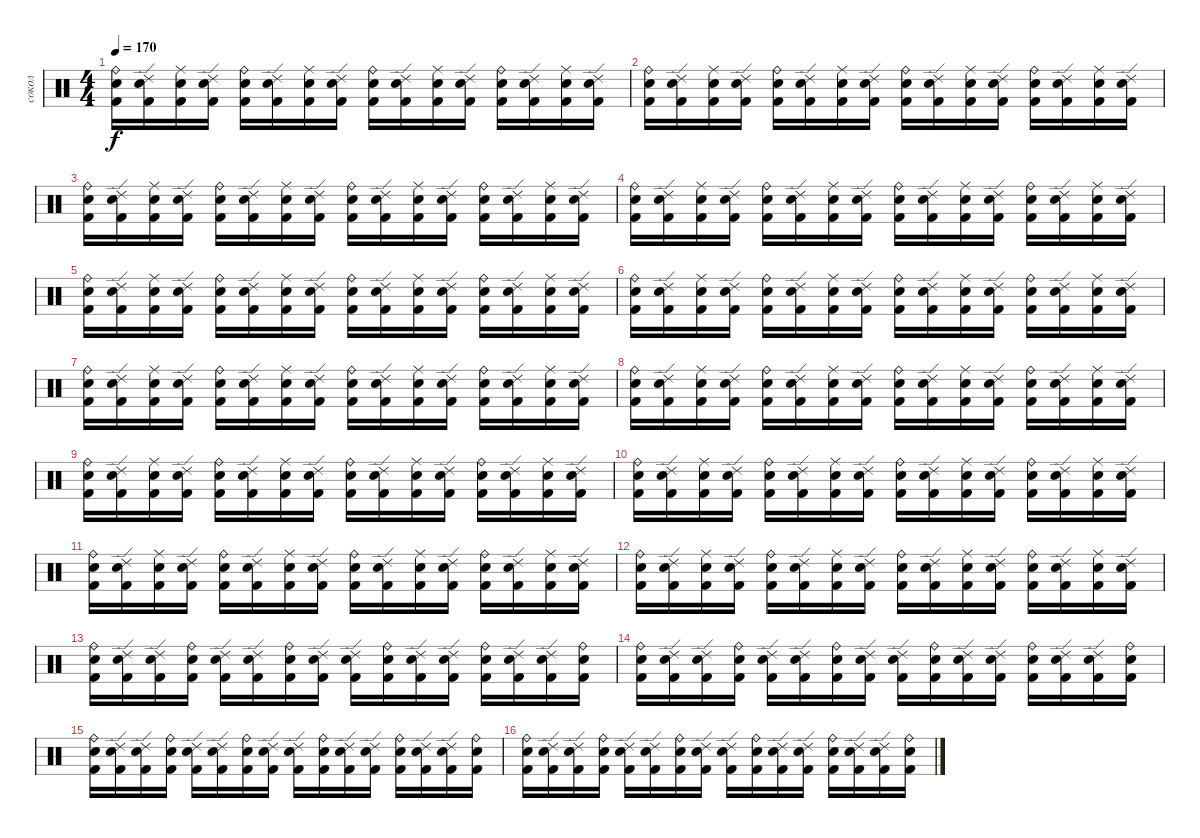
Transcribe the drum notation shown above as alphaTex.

\track ("сокол" "сокол") {instrument percussion}
\staff
\articulation defaults
\ts (4 4)
\tempo 170
\clef neutral
\ks c
("Ride (bell)" "Electric Snare (hit)" "Kick (hit) 2").16{dy f} ("Ride (edge) 2" "Electric Snare (hit)" "Kick (hit) 2").16 ("Ride (middle)" "Electric Snare (hit)" "Kick (hit) 2").16 ("Ride (edge) 2" "Electric Snare (hit)" "Kick (hit) 2").16 ("Ride (bell)" "Electric Snare (hit)" "Kick (hit) 2").16 ("Ride (edge) 2" "Electric Snare (hit)" "Kick (hit) 2").16 ("Ride (middle)" "Electric Snare (hit)" "Kick (hit) 2").16 ("Ride (edge) 2" "Electric Snare (hit)" "Kick (hit) 2").16 ("Ride (bell)" "Electric Snare (hit)" "Kick (hit) 2").16 ("Ride (edge) 2" "Electric Snare (hit)" "Kick (hit) 2").16 ("Ride (middle)" "Electric Snare (hit)" "Kick (hit) 2").16 ("Ride (edge) 2" "Electric Snare (hit)" "Kick (hit) 2").16 ("Ride (bell)" "Electric Snare (hit)" "Kick (hit) 2").16 ("Ride (edge) 2" "Electric Snare (hit)" "Kick (hit) 2").16 ("Ride (middle)" "Electric Snare (hit)" "Kick (hit) 2").16 ("Ride (edge) 2" "Electric Snare (hit)" "Kick (hit) 2").16 |
("Ride (bell)" "Electric Snare (hit)" "Kick (hit) 2").16 ("Ride (edge) 2" "Electric Snare (hit)" "Kick (hit) 2").16 ("Ride (middle)" "Electric Snare (hit)" "Kick (hit) 2").16 ("Ride (edge) 2" "Electric Snare (hit)" "Kick (hit) 2").16 ("Ride (bell)" "Electric Snare (hit)" "Kick (hit) 2").16 ("Ride (edge) 2" "Electric Snare (hit)" "Kick (hit) 2").16 ("Ride (middle)" "Electric Snare (hit)" "Kick (hit) 2").16 ("Ride (edge) 2" "Electric Snare (hit)" "Kick (hit) 2").16 ("Ride (bell)" "Electric Snare (hit)" "Kick (hit) 2").16 ("Ride (edge) 2" "Electric Snare (hit)" "Kick (hit) 2").16 ("Ride (middle)" "Electric Snare (hit)" "Kick (hit) 2").16 ("Ride (edge) 2" "Electric Snare (hit)" "Kick (hit) 2").16 ("Ride (bell)" "Electric Snare (hit)" "Kick (hit) 2").16 ("Ride (edge) 2" "Electric Snare (hit)" "Kick (hit) 2").16 ("Ride (middle)" "Electric Snare (hit)" "Kick (hit) 2").16 ("Ride (edge) 2" "Electric Snare (hit)" "Kick (hit) 2").16 |
("Ride (bell)" "Electric Snare (hit)" "Kick (hit) 2").16 ("Ride (edge) 2" "Electric Snare (hit)" "Kick (hit) 2").16 ("Ride (middle)" "Electric Snare (hit)" "Kick (hit) 2").16 ("Ride (edge) 2" "Electric Snare (hit)" "Kick (hit) 2").16 ("Ride (bell)" "Electric Snare (hit)" "Kick (hit) 2").16 ("Ride (edge) 2" "Electric Snare (hit)" "Kick (hit) 2").16 ("Ride (middle)" "Electric Snare (hit)" "Kick (hit) 2").16 ("Ride (edge) 2" "Electric Snare (hit)" "Kick (hit) 2").16 ("Ride (bell)" "Electric Snare (hit)" "Kick (hit) 2").16 ("Ride (edge) 2" "Electric Snare (hit)" "Kick (hit) 2").16 ("Ride (middle)" "Electric Snare (hit)" "Kick (hit) 2").16 ("Ride (edge) 2" "Electric Snare (hit)" "Kick (hit) 2").16 ("Ride (bell)" "Electric Snare (hit)" "Kick (hit) 2").16 ("Ride (edge) 2" "Electric Snare (hit)" "Kick (hit) 2").16 ("Ride (middle)" "Electric Snare (hit)" "Kick (hit) 2").16 ("Ride (edge) 2" "Electric Snare (hit)" "Kick (hit) 2").16 |
("Ride (bell)" "Electric Snare (hit)" "Kick (hit) 2").16 ("Ride (edge) 2" "Electric Snare (hit)" "Kick (hit) 2").16 ("Ride (middle)" "Electric Snare (hit)" "Kick (hit) 2").16 ("Ride (edge) 2" "Electric Snare (hit)" "Kick (hit) 2").16 ("Ride (bell)" "Electric Snare (hit)" "Kick (hit) 2").16 ("Ride (edge) 2" "Electric Snare (hit)" "Kick (hit) 2").16 ("Ride (middle)" "Electric Snare (hit)" "Kick (hit) 2").16 ("Ride (edge) 2" "Electric Snare (hit)" "Kick (hit) 2").16 ("Ride (bell)" "Electric Snare (hit)" "Kick (hit) 2").16 ("Ride (edge) 2" "Electric Snare (hit)" "Kick (hit) 2").16 ("Ride (middle)" "Electric Snare (hit)" "Kick (hit) 2").16 ("Ride (edge) 2" "Electric Snare (hit)" "Kick (hit) 2").16 ("Ride (bell)" "Electric Snare (hit)" "Kick (hit) 2").16 ("Ride (edge) 2" "Electric Snare (hit)" "Kick (hit) 2").16 ("Ride (middle)" "Electric Snare (hit)" "Kick (hit) 2").16 ("Ride (edge) 2" "Electric Snare (hit)" "Kick (hit) 2").16 |
("Ride (bell)" "Electric Snare (hit)" "Kick (hit) 2").16 ("Ride (edge) 2" "Electric Snare (hit)" "Kick (hit) 2").16 ("Ride (middle)" "Electric Snare (hit)" "Kick (hit) 2").16 ("Ride (edge) 2" "Electric Snare (hit)" "Kick (hit) 2").16 ("Ride (bell)" "Electric Snare (hit)" "Kick (hit) 2").16 ("Ride (edge) 2" "Electric Snare (hit)" "Kick (hit) 2").16 ("Ride (middle)" "Electric Snare (hit)" "Kick (hit) 2").16 ("Ride (edge) 2" "Electric Snare (hit)" "Kick (hit) 2").16 ("Ride (bell)" "Electric Snare (hit)" "Kick (hit) 2").16 ("Ride (edge) 2" "Electric Snare (hit)" "Kick (hit) 2").16 ("Ride (middle)" "Electric Snare (hit)" "Kick (hit) 2").16 ("Ride (edge) 2" "Electric Snare (hit)" "Kick (hit) 2").16 ("Ride (bell)" "Electric Snare (hit)" "Kick (hit) 2").16 ("Ride (edge) 2" "Electric Snare (hit)" "Kick (hit) 2").16 ("Ride (middle)" "Electric Snare (hit)" "Kick (hit) 2").16 ("Ride (edge) 2" "Electric Snare (hit)" "Kick (hit) 2").16 |
("Ride (bell)" "Electric Snare (hit)" "Kick (hit) 2").16 ("Ride (edge) 2" "Electric Snare (hit)" "Kick (hit) 2").16 ("Ride (middle)" "Electric Snare (hit)" "Kick (hit) 2").16 ("Ride (edge) 2" "Electric Snare (hit)" "Kick (hit) 2").16 ("Ride (bell)" "Electric Snare (hit)" "Kick (hit) 2").16 ("Ride (edge) 2" "Electric Snare (hit)" "Kick (hit) 2").16 ("Ride (middle)" "Electric Snare (hit)" "Kick (hit) 2").16 ("Ride (edge) 2" "Electric Snare (hit)" "Kick (hit) 2").16 ("Ride (bell)" "Electric Snare (hit)" "Kick (hit) 2").16 ("Ride (edge) 2" "Electric Snare (hit)" "Kick (hit) 2").16 ("Ride (middle)" "Electric Snare (hit)" "Kick (hit) 2").16 ("Ride (edge) 2" "Electric Snare (hit)" "Kick (hit) 2").16 ("Ride (bell)" "Electric Snare (hit)" "Kick (hit) 2").16 ("Ride (edge) 2" "Electric Snare (hit)" "Kick (hit) 2").16 ("Ride (middle)" "Electric Snare (hit)" "Kick (hit) 2").16 ("Ride (edge) 2" "Electric Snare (hit)" "Kick (hit) 2").16 |
("Ride (bell)" "Electric Snare (hit)" "Kick (hit) 2").16 ("Ride (edge) 2" "Electric Snare (hit)" "Kick (hit) 2").16 ("Ride (middle)" "Electric Snare (hit)" "Kick (hit) 2").16 ("Ride (edge) 2" "Electric Snare (hit)" "Kick (hit) 2").16 ("Ride (bell)" "Electric Snare (hit)" "Kick (hit) 2").16 ("Ride (edge) 2" "Electric Snare (hit)" "Kick (hit) 2").16 ("Ride (middle)" "Electric Snare (hit)" "Kick (hit) 2").16 ("Ride (edge) 2" "Electric Snare (hit)" "Kick (hit) 2").16 ("Ride (bell)" "Electric Snare (hit)" "Kick (hit) 2").16 ("Ride (edge) 2" "Electric Snare (hit)" "Kick (hit) 2").16 ("Ride (middle)" "Electric Snare (hit)" "Kick (hit) 2").16 ("Ride (edge) 2" "Electric Snare (hit)" "Kick (hit) 2").16 ("Ride (bell)" "Electric Snare (hit)" "Kick (hit) 2").16 ("Ride (edge) 2" "Electric Snare (hit)" "Kick (hit) 2").16 ("Ride (middle)" "Electric Snare (hit)" "Kick (hit) 2").16 ("Ride (edge) 2" "Electric Snare (hit)" "Kick (hit) 2").16 |
("Ride (bell)" "Electric Snare (hit)" "Kick (hit) 2").16 ("Ride (edge) 2" "Electric Snare (hit)" "Kick (hit) 2").16 ("Ride (middle)" "Electric Snare (hit)" "Kick (hit) 2").16 ("Ride (edge) 2" "Electric Snare (hit)" "Kick (hit) 2").16 ("Ride (bell)" "Electric Snare (hit)" "Kick (hit) 2").16 ("Ride (edge) 2" "Electric Snare (hit)" "Kick (hit) 2").16 ("Ride (middle)" "Electric Snare (hit)" "Kick (hit) 2").16 ("Ride (edge) 2" "Electric Snare (hit)" "Kick (hit) 2").16 ("Ride (bell)" "Electric Snare (hit)" "Kick (hit) 2").16 ("Ride (edge) 2" "Electric Snare (hit)" "Kick (hit) 2").16 ("Ride (middle)" "Electric Snare (hit)" "Kick (hit) 2").16 ("Ride (edge) 2" "Electric Snare (hit)" "Kick (hit) 2").16 ("Ride (bell)" "Electric Snare (hit)" "Kick (hit) 2").16 ("Ride (edge) 2" "Electric Snare (hit)" "Kick (hit) 2").16 ("Ride (middle)" "Electric Snare (hit)" "Kick (hit) 2").16 ("Ride (edge) 2" "Electric Snare (hit)" "Kick (hit) 2").16 |
("Ride (bell)" "Electric Snare (hit)" "Kick (hit) 2").16 ("Ride (edge) 2" "Electric Snare (hit)" "Kick (hit) 2").16 ("Ride (middle)" "Electric Snare (hit)" "Kick (hit) 2").16 ("Ride (edge) 2" "Electric Snare (hit)" "Kick (hit) 2").16 ("Ride (bell)" "Electric Snare (hit)" "Kick (hit) 2").16 ("Ride (edge) 2" "Electric Snare (hit)" "Kick (hit) 2").16 ("Ride (middle)" "Electric Snare (hit)" "Kick (hit) 2").16 ("Ride (edge) 2" "Electric Snare (hit)" "Kick (hit) 2").16 ("Ride (bell)" "Electric Snare (hit)" "Kick (hit) 2").16 ("Ride (edge) 2" "Electric Snare (hit)" "Kick (hit) 2").16 ("Ride (middle)" "Electric Snare (hit)" "Kick (hit) 2").16 ("Ride (edge) 2" "Electric Snare (hit)" "Kick (hit) 2").16 ("Ride (bell)" "Electric Snare (hit)" "Kick (hit) 2").16 ("Ride (edge) 2" "Electric Snare (hit)" "Kick (hit) 2").16 ("Ride (middle)" "Electric Snare (hit)" "Kick (hit) 2").16 ("Ride (edge) 2" "Electric Snare (hit)" "Kick (hit) 2").16 |
("Ride (bell)" "Electric Snare (hit)" "Kick (hit) 2").16 ("Ride (edge) 2" "Electric Snare (hit)" "Kick (hit) 2").16 ("Ride (middle)" "Electric Snare (hit)" "Kick (hit) 2").16 ("Ride (edge) 2" "Electric Snare (hit)" "Kick (hit) 2").16 ("Ride (bell)" "Electric Snare (hit)" "Kick (hit) 2").16 ("Ride (edge) 2" "Electric Snare (hit)" "Kick (hit) 2").16 ("Ride (middle)" "Electric Snare (hit)" "Kick (hit) 2").16 ("Ride (edge) 2" "Electric Snare (hit)" "Kick (hit) 2").16 ("Ride (bell)" "Electric Snare (hit)" "Kick (hit) 2").16 ("Ride (edge) 2" "Electric Snare (hit)" "Kick (hit) 2").16 ("Ride (middle)" "Electric Snare (hit)" "Kick (hit) 2").16 ("Ride (edge) 2" "Electric Snare (hit)" "Kick (hit) 2").16 ("Ride (bell)" "Electric Snare (hit)" "Kick (hit) 2").16 ("Ride (edge) 2" "Electric Snare (hit)" "Kick (hit) 2").16 ("Ride (middle)" "Electric Snare (hit)" "Kick (hit) 2").16 ("Ride (edge) 2" "Electric Snare (hit)" "Kick (hit) 2").16 |
("Ride (bell)" "Electric Snare (hit)" "Kick (hit) 2").16 ("Ride (edge) 2" "Electric Snare (hit)" "Kick (hit) 2").16 ("Ride (middle)" "Electric Snare (hit)" "Kick (hit) 2").16 ("Ride (edge) 2" "Electric Snare (hit)" "Kick (hit) 2").16 ("Ride (bell)" "Electric Snare (hit)" "Kick (hit) 2").16 ("Ride (edge) 2" "Electric Snare (hit)" "Kick (hit) 2").16 ("Ride (middle)" "Electric Snare (hit)" "Kick (hit) 2").16 ("Ride (edge) 2" "Electric Snare (hit)" "Kick (hit) 2").16 ("Ride (bell)" "Electric Snare (hit)" "Kick (hit) 2").16 ("Ride (edge) 2" "Electric Snare (hit)" "Kick (hit) 2").16 ("Ride (middle)" "Electric Snare (hit)" "Kick (hit) 2").16 ("Ride (edge) 2" "Electric Snare (hit)" "Kick (hit) 2").16 ("Ride (bell)" "Electric Snare (hit)" "Kick (hit) 2").16 ("Ride (edge) 2" "Electric Snare (hit)" "Kick (hit) 2").16 ("Ride (middle)" "Electric Snare (hit)" "Kick (hit) 2").16 ("Ride (edge) 2" "Electric Snare (hit)" "Kick (hit) 2").16 |
("Ride (bell)" "Electric Snare (hit)" "Kick (hit) 2").16 ("Ride (edge) 2" "Electric Snare (hit)" "Kick (hit) 2").16 ("Ride (middle)" "Electric Snare (hit)" "Kick (hit) 2").16 ("Ride (edge) 2" "Electric Snare (hit)" "Kick (hit) 2").16 ("Ride (bell)" "Electric Snare (hit)" "Kick (hit) 2").16 ("Ride (edge) 2" "Electric Snare (hit)" "Kick (hit) 2").16 ("Ride (middle)" "Electric Snare (hit)" "Kick (hit) 2").16 ("Ride (edge) 2" "Electric Snare (hit)" "Kick (hit) 2").16 ("Ride (bell)" "Electric Snare (hit)" "Kick (hit) 2").16 ("Ride (edge) 2" "Electric Snare (hit)" "Kick (hit) 2").16 ("Ride (middle)" "Electric Snare (hit)" "Kick (hit) 2").16 ("Ride (edge) 2" "Electric Snare (hit)" "Kick (hit) 2").16 ("Ride (bell)" "Electric Snare (hit)" "Kick (hit) 2").16 ("Ride (edge) 2" "Electric Snare (hit)" "Kick (hit) 2").16 ("Ride (middle)" "Electric Snare (hit)" "Kick (hit) 2").16 ("Ride (edge) 2" "Electric Snare (hit)" "Kick (hit) 2").16 |
("Ride (bell)" "Electric Snare (hit)" "Kick (hit) 2").16 ("Ride (edge) 2" "Electric Snare (hit)" "Kick (hit) 2").16 ("Ride (edge) 2" "Electric Snare (hit)" "Kick (hit) 2").16 ("Ride (bell)" "Electric Snare (hit)" "Kick (hit) 2").16 ("Ride (edge) 2" "Electric Snare (hit)" "Kick (hit) 2").16 ("Ride (edge) 2" "Electric Snare (hit)" "Kick (hit) 2").16 ("Ride (bell)" "Electric Snare (hit)" "Kick (hit) 2").16 ("Ride (edge) 2" "Electric Snare (hit)" "Kick (hit) 2").16 ("Ride (edge) 2" "Electric Snare (hit)" "Kick (hit) 2").16 ("Ride (bell)" "Electric Snare (hit)" "Kick (hit) 2").16 ("Ride (edge) 2" "Electric Snare (hit)" "Kick (hit) 2").16 ("Ride (edge) 2" "Electric Snare (hit)" "Kick (hit) 2").16 ("Ride (bell)" "Electric Snare (hit)" "Kick (hit) 2").16 ("Ride (edge) 2" "Electric Snare (hit)" "Kick (hit) 2").16 ("Ride (edge) 2" "Electric Snare (hit)" "Kick (hit) 2").16 ("Ride (bell)" "Electric Snare (hit)" "Kick (hit) 2").16 |
("Ride (bell)" "Electric Snare (hit)" "Kick (hit) 2").16 ("Ride (edge) 2" "Electric Snare (hit)" "Kick (hit) 2").16 ("Ride (edge) 2" "Electric Snare (hit)" "Kick (hit) 2").16 ("Ride (bell)" "Electric Snare (hit)" "Kick (hit) 2").16 ("Ride (edge) 2" "Electric Snare (hit)" "Kick (hit) 2").16 ("Ride (edge) 2" "Electric Snare (hit)" "Kick (hit) 2").16 ("Ride (bell)" "Electric Snare (hit)" "Kick (hit) 2").16 ("Ride (edge) 2" "Electric Snare (hit)" "Kick (hit) 2").16 ("Ride (edge) 2" "Electric Snare (hit)" "Kick (hit) 2").16 ("Ride (bell)" "Electric Snare (hit)" "Kick (hit) 2").16 ("Ride (edge) 2" "Electric Snare (hit)" "Kick (hit) 2").16 ("Ride (edge) 2" "Electric Snare (hit)" "Kick (hit) 2").16 ("Ride (bell)" "Electric Snare (hit)" "Kick (hit) 2").16 ("Ride (edge) 2" "Electric Snare (hit)" "Kick (hit) 2").16 ("Ride (edge) 2" "Electric Snare (hit)" "Kick (hit) 2").16 ("Ride (bell)" "Electric Snare (hit)" "Kick (hit) 2").16 |
("Ride (bell)" "Electric Snare (hit)" "Kick (hit) 2").16 ("Ride (edge) 2" "Electric Snare (hit)" "Kick (hit) 2").16 ("Ride (edge) 2" "Electric Snare (hit)" "Kick (hit) 2").16 ("Ride (bell)" "Electric Snare (hit)" "Kick (hit) 2").16 ("Ride (edge) 2" "Electric Snare (hit)" "Kick (hit) 2").16 ("Ride (edge) 2" "Electric Snare (hit)" "Kick (hit) 2").16 ("Ride (bell)" "Electric Snare (hit)" "Kick (hit) 2").16 ("Ride (edge) 2" "Electric Snare (hit)" "Kick (hit) 2").16 ("Ride (edge) 2" "Electric Snare (hit)" "Kick (hit) 2").16 ("Ride (bell)" "Electric Snare (hit)" "Kick (hit) 2").16 ("Ride (edge) 2" "Electric Snare (hit)" "Kick (hit) 2").16 ("Ride (edge) 2" "Electric Snare (hit)" "Kick (hit) 2").16 ("Ride (bell)" "Electric Snare (hit)" "Kick (hit) 2").16 ("Ride (edge) 2" "Electric Snare (hit)" "Kick (hit) 2").16 ("Ride (edge) 2" "Electric Snare (hit)" "Kick (hit) 2").16 ("Ride (bell)" "Electric Snare (hit)" "Kick (hit) 2").16 |
("Ride (bell)" "Electric Snare (hit)" "Kick (hit) 2").16 ("Ride (edge) 2" "Electric Snare (hit)" "Kick (hit) 2").16 ("Ride (edge) 2" "Electric Snare (hit)" "Kick (hit) 2").16 ("Ride (bell)" "Electric Snare (hit)" "Kick (hit) 2").16 ("Ride (edge) 2" "Electric Snare (hit)" "Kick (hit) 2").16 ("Ride (edge) 2" "Electric Snare (hit)" "Kick (hit) 2").16 ("Ride (bell)" "Electric Snare (hit)" "Kick (hit) 2").16 ("Ride (edge) 2" "Electric Snare (hit)" "Kick (hit) 2").16 ("Ride (edge) 2" "Electric Snare (hit)" "Kick (hit) 2").16 ("Ride (bell)" "Electric Snare (hit)" "Kick (hit) 2").16 ("Ride (edge) 2" "Electric Snare (hit)" "Kick (hit) 2").16 ("Ride (edge) 2" "Electric Snare (hit)" "Kick (hit) 2").16 ("Ride (bell)" "Electric Snare (hit)" "Kick (hit) 2").16 ("Ride (edge) 2" "Electric Snare (hit)" "Kick (hit) 2").16 ("Ride (edge) 2" "Electric Snare (hit)" "Kick (hit) 2").16 ("Ride (bell)" "Electric Snare (hit)" "Kick (hit) 2").16
